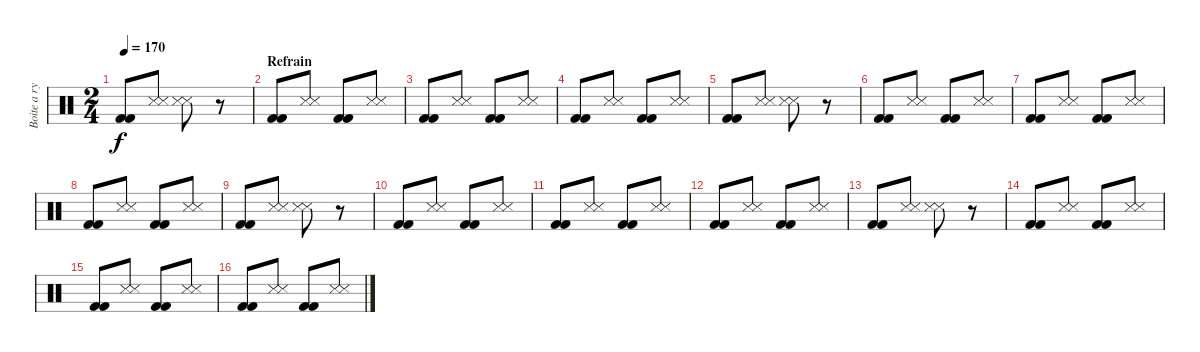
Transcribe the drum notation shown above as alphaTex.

\track ("Boite a rythme" "Boite a ry") {instrument percussion}
\staff {score}
\articulation defaults
\ts (2 4)
\tempo 170
\clef neutral
\ks c
("Kick (hit) 2" "Kick (hit) 2").8{dy f} ("Metronome (hit)" "Metronome (hit)").8 ("Metronome (hit)" "Metronome (hit)").8 r.8 |
\section ("" "Refrain")
("Kick (hit) 2" "Kick (hit) 2").8 ("Metronome (hit)" "Metronome (hit)").8 ("Kick (hit) 2" "Kick (hit) 2").8 ("Metronome (hit)" "Metronome (hit)").8 |
("Kick (hit) 2" "Kick (hit) 2").8 ("Metronome (hit)" "Metronome (hit)").8 ("Kick (hit) 2" "Kick (hit) 2").8 ("Metronome (hit)" "Metronome (hit)").8 |
("Kick (hit) 2" "Kick (hit) 2").8 ("Metronome (hit)" "Metronome (hit)").8 ("Kick (hit) 2" "Kick (hit) 2").8 ("Metronome (hit)" "Metronome (hit)").8 |
("Kick (hit) 2" "Kick (hit) 2").8 ("Metronome (hit)" "Metronome (hit)").8 ("Metronome (hit)" "Metronome (hit)").8 r.8 |
("Kick (hit) 2" "Kick (hit) 2").8 ("Metronome (hit)" "Metronome (hit)").8 ("Kick (hit) 2" "Kick (hit) 2").8 ("Metronome (hit)" "Metronome (hit)").8 |
("Kick (hit) 2" "Kick (hit) 2").8 ("Metronome (hit)" "Metronome (hit)").8 ("Kick (hit) 2" "Kick (hit) 2").8 ("Metronome (hit)" "Metronome (hit)").8 |
("Kick (hit) 2" "Kick (hit) 2").8 ("Metronome (hit)" "Metronome (hit)").8 ("Kick (hit) 2" "Kick (hit) 2").8 ("Metronome (hit)" "Metronome (hit)").8 |
("Kick (hit) 2" "Kick (hit) 2").8 ("Metronome (hit)" "Metronome (hit)").8 ("Metronome (hit)" "Metronome (hit)").8 r.8 |
("Kick (hit) 2" "Kick (hit) 2").8 ("Metronome (hit)" "Metronome (hit)").8 ("Kick (hit) 2" "Kick (hit) 2").8 ("Metronome (hit)" "Metronome (hit)").8 |
("Kick (hit) 2" "Kick (hit) 2").8 ("Metronome (hit)" "Metronome (hit)").8 ("Kick (hit) 2" "Kick (hit) 2").8 ("Metronome (hit)" "Metronome (hit)").8 |
("Kick (hit) 2" "Kick (hit) 2").8 ("Metronome (hit)" "Metronome (hit)").8 ("Kick (hit) 2" "Kick (hit) 2").8 ("Metronome (hit)" "Metronome (hit)").8 |
("Kick (hit) 2" "Kick (hit) 2").8 ("Metronome (hit)" "Metronome (hit)").8 ("Metronome (hit)" "Metronome (hit)").8 r.8 |
("Kick (hit) 2" "Kick (hit) 2").8 ("Metronome (hit)" "Metronome (hit)").8 ("Kick (hit) 2" "Kick (hit) 2").8 ("Metronome (hit)" "Metronome (hit)").8 |
("Kick (hit) 2" "Kick (hit) 2").8 ("Metronome (hit)" "Metronome (hit)").8 ("Kick (hit) 2" "Kick (hit) 2").8 ("Metronome (hit)" "Metronome (hit)").8 |
("Kick (hit) 2" "Kick (hit) 2").8 ("Metronome (hit)" "Metronome (hit)").8 ("Kick (hit) 2" "Kick (hit) 2").8 ("Metronome (hit)" "Metronome (hit)").8
